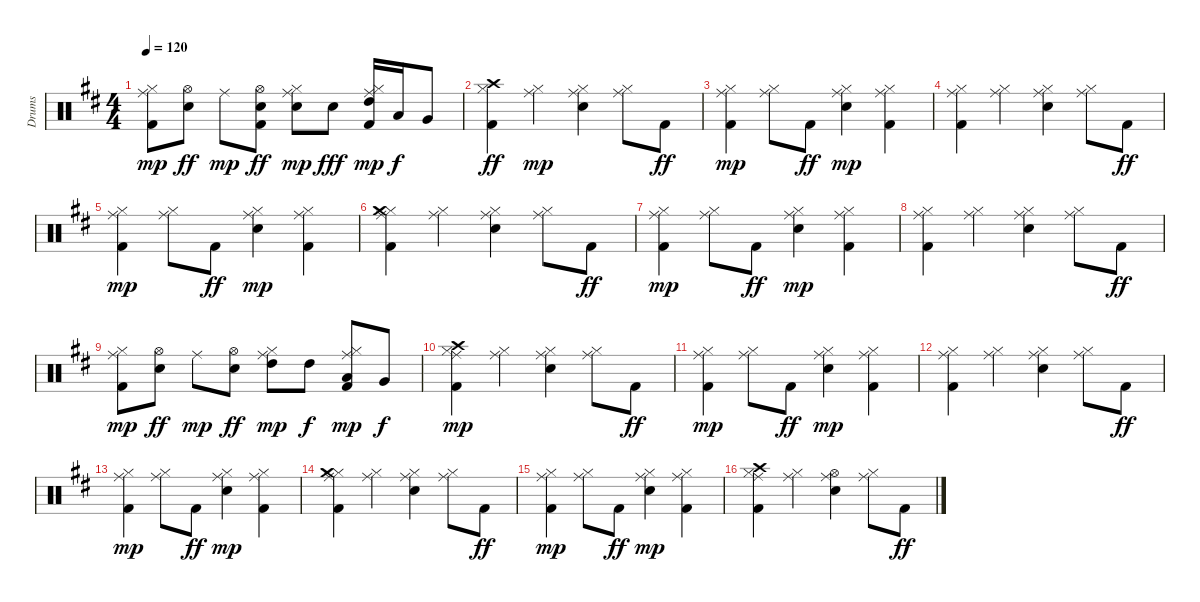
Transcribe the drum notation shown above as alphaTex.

\track ("Drums" "Drums") {instrument percussion}
\staff {score}
\articulation defaults
\ts (4 4)
\tempo 120
\clef neutral
\ks d
("Kick (hit) 2" "Hi-Hat (closed)" "Ride (middle)").8{dy mp} ("Snare (hit) 2" "Hi-Hat (open)").8{dy ff} "Ride (middle)".8{dy mp} ("Kick (hit) 2" "Snare (hit) 2" "Hi-Hat (open)").8{dy ff} ("Snare (hit) 2" "Hi-Hat (closed)" "Ride (middle)").8{dy mp} "Snare (hit) 2".8{dy fff} ("Kick (hit) 2" "Hi-Hat (closed)" "High Tom (hit)" "Ride (middle)").16{dy mp} "Low Tom (hit)".16{dy f} "Very Low Tom (hit)".8 |
("Kick (hit) 2" "Hi-Hat (closed)" "Crash high (hit)").4{dy ff} ("Hi-Hat (closed)" "Ride (middle)").4{dy mp} ("Snare (hit) 2" "Hi-Hat (closed)" "Ride (middle)").4 ("Hi-Hat (closed)" "Ride (middle)").8 "Kick (hit) 2".8{dy ff} |
("Kick (hit) 2" "Hi-Hat (closed)" "Ride (middle)").4{dy mp} ("Hi-Hat (closed)" "Ride (middle)").8 "Kick (hit) 2".8{dy ff} ("Snare (hit) 2" "Hi-Hat (closed)" "Ride (middle)").4{dy mp} ("Kick (hit) 2" "Hi-Hat (closed)" "Ride (middle)").4 |
("Kick (hit) 2" "Hi-Hat (closed)" "Ride (middle)").4 ("Hi-Hat (closed)" "Ride (middle)").4 ("Snare (hit) 2" "Hi-Hat (closed)" "Ride (middle)").4 ("Hi-Hat (closed)" "Ride (middle)").8 "Kick (hit) 2".8{dy ff} |
("Kick (hit) 2" "Hi-Hat (closed)" "Ride (middle)").4{dy mp} ("Hi-Hat (closed)" "Ride (middle)").8 "Kick (hit) 2".8{dy ff} ("Snare (hit) 2" "Hi-Hat (closed)" "Ride (middle)").4{dy mp} ("Kick (hit) 2" "Hi-Hat (closed)" "Ride (middle)").4 |
("Kick (hit) 2" "Hi-Hat (closed)" "Crash medium (hit)" "Ride (middle)").4 ("Hi-Hat (closed)" "Ride (middle)").4 ("Snare (hit) 2" "Hi-Hat (closed)" "Ride (middle)").4 ("Hi-Hat (closed)" "Ride (middle)").8 "Kick (hit) 2".8{dy ff} |
("Kick (hit) 2" "Hi-Hat (closed)" "Ride (middle)").4{dy mp} ("Hi-Hat (closed)" "Ride (middle)").8 "Kick (hit) 2".8{dy ff} ("Snare (hit) 2" "Hi-Hat (closed)" "Ride (middle)").4{dy mp} ("Kick (hit) 2" "Hi-Hat (closed)" "Ride (middle)").4 |
("Kick (hit) 2" "Hi-Hat (closed)" "Ride (middle)").4 ("Hi-Hat (closed)" "Ride (middle)").4 ("Snare (hit) 2" "Hi-Hat (closed)" "Ride (middle)").4 ("Hi-Hat (closed)" "Ride (middle)").8 "Kick (hit) 2".8{dy ff} |
("Kick (hit) 2" "Hi-Hat (closed)" "Ride (middle)").8{dy mp} ("Snare (hit) 2" "Hi-Hat (open)").8{dy ff} "Ride (middle)".8{dy mp} ("Snare (hit) 2" "Hi-Hat (open)").8{dy ff} ("Hi-Hat (closed)" "High Tom (hit)" "Ride (middle)").8{dy mp} "High Tom (hit)".8{dy f} ("Kick (hit) 2" "Hi-Hat (closed)" "Low Tom (hit)" "Ride (middle)").8{dy mp} "Very Low Tom (hit)".8{dy f} |
("Kick (hit) 2" "Hi-Hat (closed)" "Crash high (hit)" "Ride (middle)").4{dy mp} ("Hi-Hat (closed)" "Ride (middle)").4 ("Snare (hit) 2" "Hi-Hat (closed)" "Ride (middle)").4 ("Hi-Hat (closed)" "Ride (middle)").8 "Kick (hit) 2".8{dy ff} |
("Kick (hit) 2" "Hi-Hat (closed)" "Ride (middle)").4{dy mp} ("Hi-Hat (closed)" "Ride (middle)").8 "Kick (hit) 2".8{dy ff} ("Snare (hit) 2" "Hi-Hat (closed)" "Ride (middle)").4{dy mp} ("Kick (hit) 2" "Hi-Hat (closed)" "Ride (middle)").4 |
("Kick (hit) 2" "Hi-Hat (closed)" "Ride (middle)").4 ("Hi-Hat (closed)" "Ride (middle)").4 ("Snare (hit) 2" "Hi-Hat (closed)" "Ride (middle)").4 ("Hi-Hat (closed)" "Ride (middle)").8 "Kick (hit) 2".8{dy ff} |
("Kick (hit) 2" "Hi-Hat (closed)" "Ride (middle)").4{dy mp} ("Hi-Hat (closed)" "Ride (middle)").8 "Kick (hit) 2".8{dy ff} ("Snare (hit) 2" "Hi-Hat (closed)" "Ride (middle)").4{dy mp} ("Kick (hit) 2" "Hi-Hat (closed)" "Ride (middle)").4 |
("Kick (hit) 2" "Hi-Hat (closed)" "Crash medium (hit)" "Ride (middle)").4 ("Hi-Hat (closed)" "Ride (middle)").4 ("Snare (hit) 2" "Hi-Hat (closed)" "Ride (middle)").4 ("Hi-Hat (closed)" "Ride (middle)").8 "Kick (hit) 2".8{dy ff} |
("Kick (hit) 2" "Hi-Hat (closed)" "Ride (middle)").4{dy mp} ("Hi-Hat (closed)" "Ride (middle)").8 "Kick (hit) 2".8{dy ff} ("Snare (hit) 2" "Hi-Hat (closed)" "Ride (middle)").4{dy mp} ("Kick (hit) 2" "Hi-Hat (closed)" "Ride (middle)").4 |
("Kick (hit) 2" "Hi-Hat (closed)" "Crash high (hit)" "Ride (middle)").4 ("Hi-Hat (closed)" "Ride (middle)").4 ("Snare (hit) 2" "Hi-Hat (open)" "Ride (middle)").4 ("Hi-Hat (closed)" "Ride (middle)").8 "Kick (hit) 2".8{dy ff}
